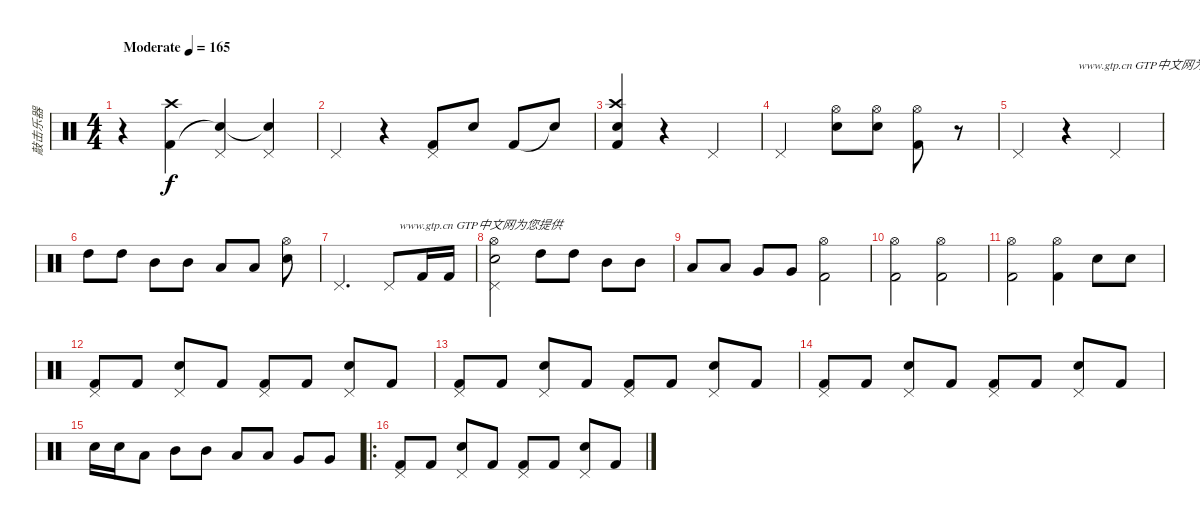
\track ("敲击乐器" "敲击乐器") {instrument percussion}
\staff {score}
\articulation defaults
\ts (4 4)
\tempo (165 "Moderate")
\clef neutral
\ks c
r.4{dy f} ("Kick (hit) 2" "Crash high (hit)").4 ("Snare (hit)"{t} "Pedal Hi-Hat (hit)").4 ("Snare (hit)"{t} "Pedal Hi-Hat (hit)").4 |
"Pedal Hi-Hat (hit)".4 r.4 ("Kick (hit) 2" "Pedal Hi-Hat (hit)").8 "Snare (hit) 2".8 "Kick (hit) 2".8 "Snare (hit)"{t}.8 |
("Kick (hit) 2" "Crash high (hit)" "Snare (hit) 2").4 r.4 "Pedal Hi-Hat (hit)".4 |
"Pedal Hi-Hat (hit)".2 ("Snare (hit) 2" "Hi-Hat (open)").8 ("Snare (hit) 2" "Hi-Hat (open)").8 ("Kick (hit) 2" "Hi-Hat (open)").8 r.8 |
"Pedal Hi-Hat (hit)".4{txt "                    www.gtp.cn GTP中文网为您提供"} r.4 "Pedal Hi-Hat (hit)".4 |
"High Tom (hit)".8 "High Tom (hit)".8 "Mid Tom (hit)".8 "Mid Tom (hit)".8 "Low Tom (hit)".8 "Low Tom (hit)".8 ("Snare (hit) 2" "Hi-Hat (open)").8 |
"Pedal Hi-Hat (hit)".2{d txt "                    www.gtp.cn GTP中文网为您提供"} "Pedal Hi-Hat (hit)".8 "Kick (hit) 2".16 "Kick (hit) 2".16 |
("Snare (hit) 2" "Hi-Hat (open)" "Pedal Hi-Hat (hit)").2 "High Tom (hit)".8 "High Tom (hit)".8 "Mid Tom (hit)".8 "Mid Tom (hit)".8 |
"Low Tom (hit)".8 "Low Tom (hit)".8 "Very Low Tom (hit)".8 "Very Low Tom (hit)".8 ("Kick (hit) 2" "Hi-Hat (open)").2 |
("Kick (hit) 2" "Hi-Hat (open)").2 ("Kick (hit) 2" "Hi-Hat (open)").2 |
("Kick (hit) 2" "Hi-Hat (open)").2 ("Kick (hit) 2" "Hi-Hat (open)").4 "Snare (hit) 2".8 "Snare (hit) 2".8 |
("Kick (hit) 2" "Pedal Hi-Hat (hit)").8 "Kick (hit) 2".8 ("Snare (hit) 2" "Pedal Hi-Hat (hit)").8 "Kick (hit) 2".8 ("Kick (hit) 2" "Pedal Hi-Hat (hit)").8 "Kick (hit) 2".8 ("Snare (hit) 2" "Pedal Hi-Hat (hit)").8 "Kick (hit) 2".8 |
("Kick (hit) 2" "Pedal Hi-Hat (hit)").8 "Kick (hit) 2".8 ("Snare (hit) 2" "Pedal Hi-Hat (hit)").8 "Kick (hit) 2".8 ("Kick (hit) 2" "Pedal Hi-Hat (hit)").8 "Kick (hit) 2".8 ("Snare (hit) 2" "Pedal Hi-Hat (hit)").8 "Kick (hit) 2".8 |
("Kick (hit) 2" "Pedal Hi-Hat (hit)").8 "Kick (hit) 2".8 ("Snare (hit) 2" "Pedal Hi-Hat (hit)").8 "Kick (hit) 2".8 ("Kick (hit) 2" "Pedal Hi-Hat (hit)").8 "Kick (hit) 2".8 ("Snare (hit) 2" "Pedal Hi-Hat (hit)").8 "Kick (hit) 2".8 |
"Snare (hit) 2".16 "Snare (hit) 2".16 "Low Tom (hit)".8 "Mid Tom (hit)".8 "Mid Tom (hit)".8 "Low Tom (hit)".8 "Low Tom (hit)".8 "Very Low Tom (hit)".8 "Very Low Tom (hit)".8 |
\ro
("Kick (hit) 2" "Pedal Hi-Hat (hit)").8 "Kick (hit) 2".8 ("Snare (hit) 2" "Pedal Hi-Hat (hit)").8 "Kick (hit) 2".8 ("Kick (hit) 2" "Pedal Hi-Hat (hit)").8 "Kick (hit) 2".8 ("Snare (hit) 2" "Pedal Hi-Hat (hit)").8 "Kick (hit) 2".8
